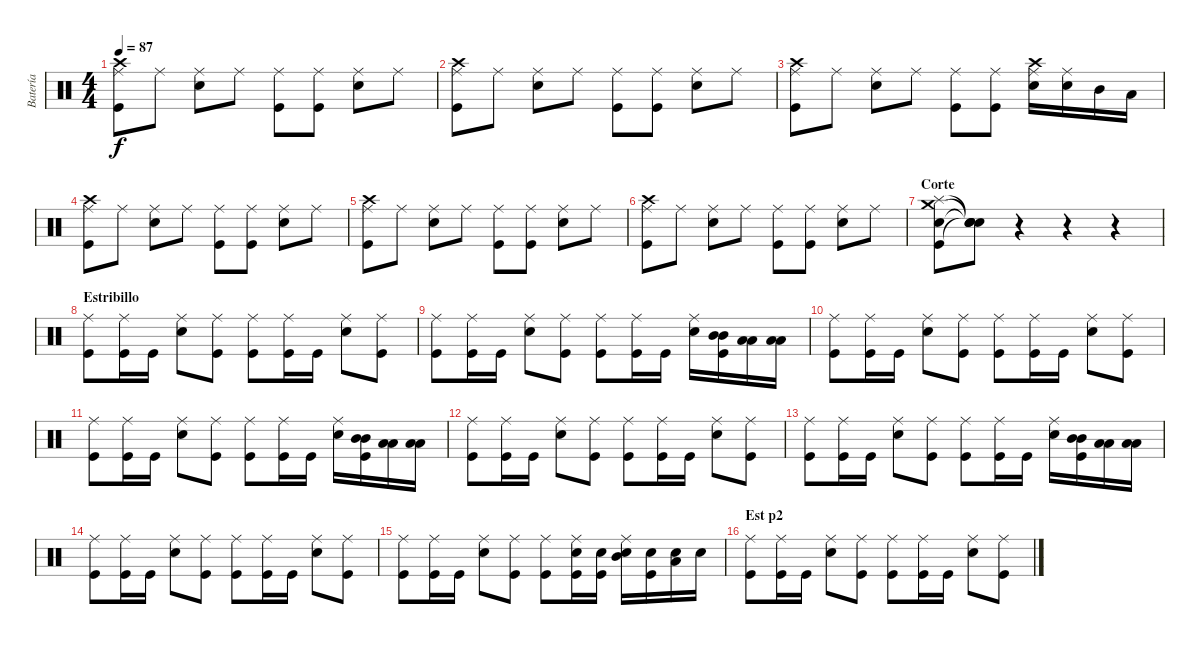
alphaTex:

\track ("Batería" "Batería") {instrument percussion}
\staff {score}
\articulation defaults
\ts (4 4)
\tempo 87
\clef neutral
\ks c
("Crash high (hit)" "Ride (middle)" "Kick (hit)").8{dy f} "Ride (middle)".8 ("Ride (middle)" "Snare (hit) 2").8 "Ride (middle)".8 ("Ride (middle)" "Kick (hit)").8 ("Ride (middle)" "Kick (hit)").8 ("Ride (middle)" "Snare (hit) 2").8 "Ride (middle)".8 |
("Crash high (hit)" "Ride (middle)" "Kick (hit)").8 "Ride (middle)".8 ("Ride (middle)" "Snare (hit) 2").8 "Ride (middle)".8 ("Ride (middle)" "Kick (hit)").8 ("Ride (middle)" "Kick (hit)").8 ("Ride (middle)" "Snare (hit) 2").8 "Ride (middle)".8 |
("Crash high (hit)" "Ride (middle)" "Kick (hit)").8 "Ride (middle)".8 ("Ride (middle)" "Snare (hit) 2").8 "Ride (middle)".8 ("Ride (middle)" "Kick (hit)").8 ("Ride (middle)" "Kick (hit)").8 ("Crash high (hit)" "Ride (middle)" "Snare (hit) 2").16 ("Ride (middle)" "Snare (hit) 2").16 "Mid Tom (hit)".16 "Low Tom (hit)".16 |
("Crash high (hit)" "Ride (middle)" "Kick (hit)").8 "Ride (middle)".8 ("Ride (middle)" "Snare (hit) 2").8 "Ride (middle)".8 ("Ride (middle)" "Kick (hit)").8 ("Ride (middle)" "Kick (hit)").8 ("Ride (middle)" "Snare (hit) 2").8 "Ride (middle)".8 |
("Crash high (hit)" "Ride (middle)" "Kick (hit)").8 "Ride (middle)".8 ("Ride (middle)" "Snare (hit) 2").8 "Ride (middle)".8 ("Ride (middle)" "Kick (hit)").8 ("Ride (middle)" "Kick (hit)").8 ("Ride (middle)" "Snare (hit) 2").8 "Ride (middle)".8 |
("Crash high (hit)" "Ride (middle)" "Kick (hit)").8 "Ride (middle)".8 ("Ride (middle)" "Snare (hit) 2").8 "Ride (middle)".8 ("Ride (middle)" "Kick (hit)").8 ("Ride (middle)" "Kick (hit)").8 ("Ride (middle)" "Snare (hit) 2").8 "Ride (middle)".8 |
\section ("" "Corte")
("Crash medium (hit)" "Splash (hit)" "Snare (hit) 2" "Kick (hit)").8 ("Snare (hit)"{t} "Snare (hit)"{t} "Snare (hit)"{t} "Snare (hit)"{t}).8 r.4 r.4 r.4 |
\section ("" "Estribillo")
("Ride (middle)" "Kick (hit)").8 ("Ride (middle)" "Kick (hit)").16 "Kick (hit)".16 ("Ride (middle)" "Snare (hit) 2").8 ("Ride (middle)" "Kick (hit)").8 ("Ride (middle)" "Kick (hit)").8 ("Ride (middle)" "Kick (hit)").16 "Kick (hit)".16 ("Ride (middle)" "Snare (hit) 2").8 ("Ride (middle)" "Kick (hit)").8 |
("Ride (middle)" "Kick (hit)").8 ("Ride (middle)" "Kick (hit)").16 "Kick (hit)".16 ("Ride (middle)" "Snare (hit) 2").8 ("Ride (middle)" "Kick (hit)").8 ("Ride (middle)" "Kick (hit)").8 ("Ride (middle)" "Kick (hit)").16 "Kick (hit)".16 ("Ride (middle)" "Snare (hit) 2").16 ("Mid Tom (hit)" "Mid Tom (hit)" "Kick (hit)").16 ("Low Tom (hit)" "Low Tom (hit)").16 ("Low Floor Tom (hit)" "Low Floor Tom (hit)").16 |
("Ride (middle)" "Kick (hit)").8 ("Ride (middle)" "Kick (hit)").16 "Kick (hit)".16 ("Ride (middle)" "Snare (hit) 2").8 ("Ride (middle)" "Kick (hit)").8 ("Ride (middle)" "Kick (hit)").8 ("Ride (middle)" "Kick (hit)").16 "Kick (hit)".16 ("Ride (middle)" "Snare (hit) 2").8 ("Ride (middle)" "Kick (hit)").8 |
("Ride (middle)" "Kick (hit)").8 ("Ride (middle)" "Kick (hit)").16 "Kick (hit)".16 ("Ride (middle)" "Snare (hit) 2").8 ("Ride (middle)" "Kick (hit)").8 ("Ride (middle)" "Kick (hit)").8 ("Ride (middle)" "Kick (hit)").16 "Kick (hit)".16 ("Ride (middle)" "Snare (hit) 2").16 ("Mid Tom (hit)" "Mid Tom (hit)" "Kick (hit)").16 ("Low Tom (hit)" "Low Tom (hit)").16 ("Low Floor Tom (hit)" "Low Floor Tom (hit)").16 |
("Ride (middle)" "Kick (hit)").8 ("Ride (middle)" "Kick (hit)").16 "Kick (hit)".16 ("Ride (middle)" "Snare (hit) 2").8 ("Ride (middle)" "Kick (hit)").8 ("Ride (middle)" "Kick (hit)").8 ("Ride (middle)" "Kick (hit)").16 "Kick (hit)".16 ("Ride (middle)" "Snare (hit) 2").8 ("Ride (middle)" "Kick (hit)").8 |
("Ride (middle)" "Kick (hit)").8 ("Ride (middle)" "Kick (hit)").16 "Kick (hit)".16 ("Ride (middle)" "Snare (hit) 2").8 ("Ride (middle)" "Kick (hit)").8 ("Ride (middle)" "Kick (hit)").8 ("Ride (middle)" "Kick (hit)").16 "Kick (hit)".16 ("Ride (middle)" "Snare (hit) 2").16 ("Mid Tom (hit)" "Mid Tom (hit)" "Kick (hit)").16 ("Low Tom (hit)" "Low Tom (hit)").16 ("Low Floor Tom (hit)" "Low Floor Tom (hit)").16 |
("Ride (middle)" "Kick (hit)").8 ("Ride (middle)" "Kick (hit)").16 "Kick (hit)".16 ("Ride (middle)" "Snare (hit) 2").8 ("Ride (middle)" "Kick (hit)").8 ("Ride (middle)" "Kick (hit)").8 ("Ride (middle)" "Kick (hit)").16 "Kick (hit)".16 ("Ride (middle)" "Snare (hit) 2").8 ("Ride (middle)" "Kick (hit)").8 |
("Ride (middle)" "Kick (hit)").8 ("Ride (middle)" "Kick (hit)").16 "Kick (hit)".16 ("Ride (middle)" "Snare (hit) 2").8 ("Ride (middle)" "Kick (hit)").8 ("Ride (middle)" "Kick (hit)").8 ("Ride (middle)" "Snare (hit) 2" "Kick (hit)").16 ("Snare (hit) 2" "Kick (hit)").16 ("Mid Tom (hit)" "Ride (middle)" "Snare (hit) 2").16 ("Snare (hit) 2" "Kick (hit)").16 ("Low Floor Tom (hit)" "Snare (hit) 2").16 "Snare (hit) 2".16 |
\section ("" "Est p2")
("Ride (middle)" "Kick (hit)").8 ("Ride (middle)" "Kick (hit)").16 "Kick (hit)".16 ("Ride (middle)" "Snare (hit) 2").8 ("Ride (middle)" "Kick (hit)").8 ("Ride (middle)" "Kick (hit)").8 ("Ride (middle)" "Kick (hit)").16 "Kick (hit)".16 ("Ride (middle)" "Snare (hit) 2").8 ("Ride (middle)" "Kick (hit)").8
